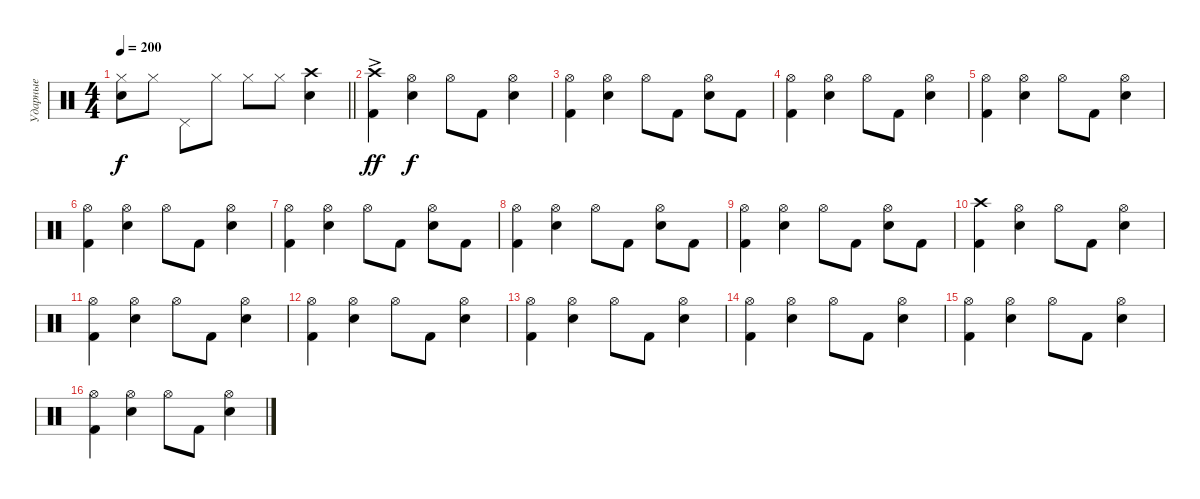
\track ("Ударные" "Ударные") {instrument percussion}
\staff
\articulation defaults
\ts (4 4)
\tempo 200
\clef neutral
\barLineRight lightlight
\ks c
("Snare (hit) 2" "Hi-Hat (closed)").8{dy f} "Hi-Hat (closed)".8 "Pedal Hi-Hat (hit)".8 "Hi-Hat (closed)".8 "Hi-Hat (closed)".8 "Hi-Hat (closed)".8 ("Crash high (hit)" "Snare (hit) 2").4 |
("Kick (hit) 2" "Crash high (hit)"{ac}).4{dy ff} ("Snare (hit) 2" "Hi-Hat (open)").4{dy f} "Hi-Hat (open)".8 "Kick (hit) 2".8 ("Snare (hit) 2" "Hi-Hat (open)").4 |
("Kick (hit) 2" "Hi-Hat (open)").4 ("Snare (hit) 2" "Hi-Hat (open)").4 "Hi-Hat (open)".8 "Kick (hit) 2".8 ("Snare (hit) 2" "Hi-Hat (open)").8 "Kick (hit) 2".8 |
("Kick (hit) 2" "Hi-Hat (open)").4 ("Snare (hit) 2" "Hi-Hat (open)").4 "Hi-Hat (open)".8 "Kick (hit) 2".8 ("Snare (hit) 2" "Hi-Hat (open)").4 |
("Kick (hit) 2" "Hi-Hat (open)").4 ("Snare (hit) 2" "Hi-Hat (open)").4 "Hi-Hat (open)".8 "Kick (hit) 2".8 ("Snare (hit) 2" "Hi-Hat (open)").4 |
("Kick (hit) 2" "Hi-Hat (open)").4 ("Snare (hit) 2" "Hi-Hat (open)").4 "Hi-Hat (open)".8 "Kick (hit) 2".8 ("Snare (hit) 2" "Hi-Hat (open)").4 |
("Kick (hit) 2" "Hi-Hat (open)").4 ("Snare (hit) 2" "Hi-Hat (open)").4 "Hi-Hat (open)".8 "Kick (hit) 2".8 ("Snare (hit) 2" "Hi-Hat (open)").8 "Kick (hit) 2".8 |
("Kick (hit) 2" "Hi-Hat (open)").4 ("Snare (hit) 2" "Hi-Hat (open)").4 "Hi-Hat (open)".8 "Kick (hit) 2".8 ("Snare (hit) 2" "Hi-Hat (open)").8 "Kick (hit) 2".8 |
("Kick (hit) 2" "Hi-Hat (open)").4 ("Snare (hit) 2" "Hi-Hat (open)").4 "Hi-Hat (open)".8 "Kick (hit) 2".8 ("Snare (hit) 2" "Hi-Hat (open)").8 "Kick (hit) 2".8 |
("Kick (hit) 2" "Crash high (hit)").4 ("Snare (hit) 2" "Hi-Hat (open)").4 "Hi-Hat (open)".8 "Kick (hit) 2".8 ("Snare (hit) 2" "Hi-Hat (open)").4 |
("Kick (hit) 2" "Hi-Hat (open)").4 ("Snare (hit) 2" "Hi-Hat (open)").4 "Hi-Hat (open)".8 "Kick (hit) 2".8 ("Snare (hit) 2" "Hi-Hat (open)").4 |
("Kick (hit) 2" "Hi-Hat (open)").4 ("Snare (hit) 2" "Hi-Hat (open)").4 "Hi-Hat (open)".8 "Kick (hit) 2".8 ("Snare (hit) 2" "Hi-Hat (open)").4 |
("Kick (hit) 2" "Hi-Hat (open)").4 ("Snare (hit) 2" "Hi-Hat (open)").4 "Hi-Hat (open)".8 "Kick (hit) 2".8 ("Snare (hit) 2" "Hi-Hat (open)").4 |
("Kick (hit) 2" "Hi-Hat (open)").4 ("Snare (hit) 2" "Hi-Hat (open)").4 "Hi-Hat (open)".8 "Kick (hit) 2".8 ("Snare (hit) 2" "Hi-Hat (open)").4 |
("Kick (hit) 2" "Hi-Hat (open)").4 ("Snare (hit) 2" "Hi-Hat (open)").4 "Hi-Hat (open)".8 "Kick (hit) 2".8 ("Snare (hit) 2" "Hi-Hat (open)").4 |
("Kick (hit) 2" "Hi-Hat (open)").4 ("Snare (hit) 2" "Hi-Hat (open)").4 "Hi-Hat (open)".8 "Kick (hit) 2".8 ("Snare (hit) 2" "Hi-Hat (open)").4
